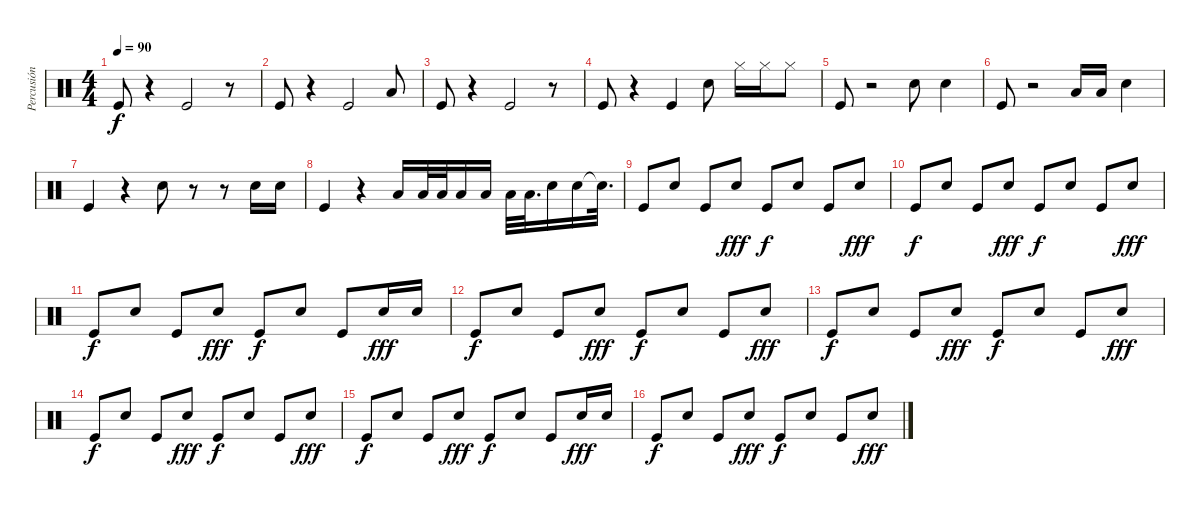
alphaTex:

\track ("Percusión" "Percusión") {instrument percussion}
\staff {score}
\articulation defaults
\ts (4 4)
\tempo 90
\clef neutral
\ks c "Kick (hit)".8{dy f}
r.4 "Kick (hit)".2 r.8 |
"Kick (hit)".8 r.4 "Kick (hit)".2 "Low Floor Tom (hit)".8 |
"Kick (hit)".8 r.4 "Kick (hit)".2 r.8 |
"Kick (hit)".8 r.4 "Kick (hit)".4 "Snare (hit) 2".8 "Hi-Hat (closed)".16 "Hi-Hat (closed)".16 "Hi-Hat (closed)".8 |
"Kick (hit)".8 r.2 "Snare (hit) 2".8 "Snare (hit) 2".4 |
"Kick (hit)".8 r.2 "Low Floor Tom (hit)".16 "Low Floor Tom (hit)".16 "Snare (hit) 2".4 |
"Kick (hit)".4 r.4 "Snare (hit) 2".8 r.8 r.8 "Snare (hit) 2".16 "Snare (hit) 2".16 |
"Kick (hit)".4 r.4 "Low Floor Tom (hit)".16 "Low Tom (hit)".32 "Low Tom (hit)".32 "Low Floor Tom (hit)".16 "Low Floor Tom (hit)".16 "Low Floor Tom (hit)".32 "Low Floor Tom (hit)".32{d} "Snare (hit) 2".16 "Snare (hit) 2".16 "Snare (hit)"{t}.32{d} |
"Kick (hit)".8 "Snare (hit) 2".8 "Kick (hit)".8 "Snare (hit) 2".8{dy fff} "Kick (hit)".8{dy f} "Snare (hit) 2".8 "Kick (hit)".8 "Snare (hit) 2".8{dy fff} |
"Kick (hit)".8{dy f} "Snare (hit) 2".8 "Kick (hit)".8 "Snare (hit) 2".8{dy fff} "Kick (hit)".8{dy f} "Snare (hit) 2".8 "Kick (hit)".8 "Snare (hit) 2".8{dy fff} |
"Kick (hit)".8{dy f} "Snare (hit) 2".8 "Kick (hit)".8 "Snare (hit) 2".8{dy fff} "Kick (hit)".8{dy f} "Snare (hit) 2".8 "Kick (hit)".8 "Snare (hit) 2".16{dy fff} "Snare (hit) 2".16 |
"Kick (hit)".8{dy f} "Snare (hit) 2".8 "Kick (hit)".8 "Snare (hit) 2".8{dy fff} "Kick (hit)".8{dy f} "Snare (hit) 2".8 "Kick (hit)".8 "Snare (hit) 2".8{dy fff} |
"Kick (hit)".8{dy f} "Snare (hit) 2".8 "Kick (hit)".8 "Snare (hit) 2".8{dy fff} "Kick (hit)".8{dy f} "Snare (hit) 2".8 "Kick (hit)".8 "Snare (hit) 2".8{dy fff} |
"Kick (hit)".8{dy f} "Snare (hit) 2".8 "Kick (hit)".8 "Snare (hit) 2".8{dy fff} "Kick (hit)".8{dy f} "Snare (hit) 2".8 "Kick (hit)".8 "Snare (hit) 2".8{dy fff} |
"Kick (hit)".8{dy f} "Snare (hit) 2".8 "Kick (hit)".8 "Snare (hit) 2".8{dy fff} "Kick (hit)".8{dy f} "Snare (hit) 2".8 "Kick (hit)".8 "Snare (hit) 2".16{dy fff} "Snare (hit) 2".16 |
"Kick (hit)".8{dy f} "Snare (hit) 2".8 "Kick (hit)".8 "Snare (hit) 2".8{dy fff} "Kick (hit)".8{dy f} "Snare (hit) 2".8 "Kick (hit)".8 "Snare (hit) 2".8{dy fff}
